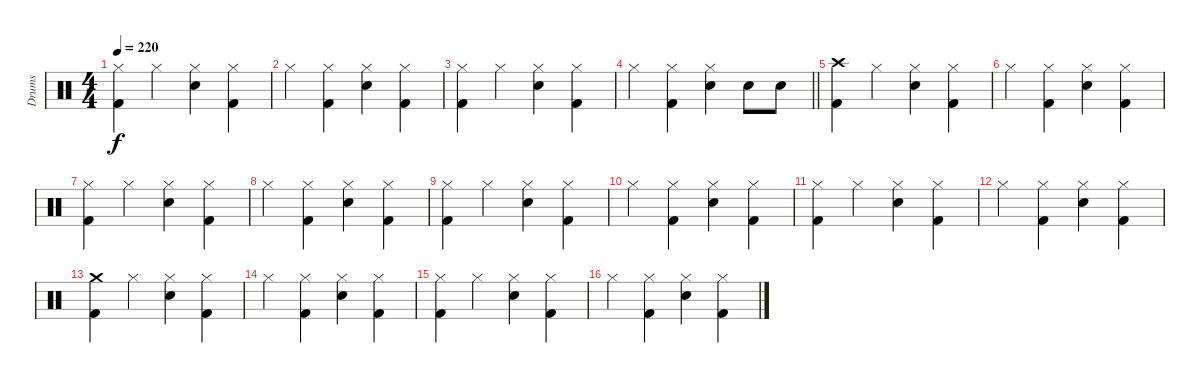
\track ("Drums" "Drums") {instrument percussion}
\staff {score}
\articulation defaults
\ts (4 4)
\tempo 220
\clef neutral
\ks c
("Hi-Hat (closed)" "Kick (hit) 2").4{dy f} "Hi-Hat (closed)".4 ("Hi-Hat (closed)" "Electric Snare (hit)").4 ("Hi-Hat (closed)" "Kick (hit) 2").4 |
"Hi-Hat (closed)".4 ("Hi-Hat (closed)" "Kick (hit) 2").4 ("Hi-Hat (closed)" "Electric Snare (hit)").4 ("Hi-Hat (closed)" "Kick (hit) 2").4 |
("Hi-Hat (closed)" "Kick (hit) 2").4 "Hi-Hat (closed)".4 ("Hi-Hat (closed)" "Electric Snare (hit)").4 ("Hi-Hat (closed)" "Kick (hit) 2").4 |
\barLineRight lightlight "Hi-Hat (closed)".4
("Hi-Hat (closed)" "Kick (hit) 2").4 ("Hi-Hat (closed)" "Electric Snare (hit)").4 "Electric Snare (hit)".8 "Electric Snare (hit)".8 |
("Crash high (hit)" "Kick (hit) 2").4 "Hi-Hat (closed)".4 ("Hi-Hat (closed)" "Electric Snare (hit)").4 ("Hi-Hat (closed)" "Kick (hit) 2").4 |
"Hi-Hat (closed)".4 ("Hi-Hat (closed)" "Kick (hit) 2").4 ("Hi-Hat (closed)" "Electric Snare (hit)").4 ("Hi-Hat (closed)" "Kick (hit) 2").4 |
("Hi-Hat (closed)" "Kick (hit) 2").4 "Hi-Hat (closed)".4 ("Hi-Hat (closed)" "Electric Snare (hit)").4 ("Hi-Hat (closed)" "Kick (hit) 2").4 |
"Hi-Hat (closed)".4 ("Hi-Hat (closed)" "Kick (hit) 2").4 ("Hi-Hat (closed)" "Electric Snare (hit)").4 ("Hi-Hat (closed)" "Kick (hit) 2").4 |
("Hi-Hat (closed)" "Kick (hit) 2").4 "Hi-Hat (closed)".4 ("Hi-Hat (closed)" "Electric Snare (hit)").4 ("Hi-Hat (closed)" "Kick (hit) 2").4 |
"Hi-Hat (closed)".4 ("Hi-Hat (closed)" "Kick (hit) 2").4 ("Hi-Hat (closed)" "Electric Snare (hit)").4 ("Hi-Hat (closed)" "Kick (hit) 2").4 |
("Hi-Hat (closed)" "Kick (hit) 2").4 "Hi-Hat (closed)".4 ("Hi-Hat (closed)" "Electric Snare (hit)").4 ("Hi-Hat (closed)" "Kick (hit) 2").4 |
"Hi-Hat (closed)".4 ("Hi-Hat (closed)" "Kick (hit) 2").4 ("Hi-Hat (closed)" "Electric Snare (hit)").4 ("Hi-Hat (closed)" "Kick (hit) 2").4 |
("Crash medium (hit)" "Kick (hit) 2").4 "Hi-Hat (closed)".4 ("Hi-Hat (closed)" "Electric Snare (hit)").4 ("Hi-Hat (closed)" "Kick (hit) 2").4 |
"Hi-Hat (closed)".4 ("Hi-Hat (closed)" "Kick (hit) 2").4 ("Hi-Hat (closed)" "Electric Snare (hit)").4 ("Hi-Hat (closed)" "Kick (hit) 2").4 |
("Hi-Hat (closed)" "Kick (hit) 2").4 "Hi-Hat (closed)".4 ("Hi-Hat (closed)" "Electric Snare (hit)").4 ("Hi-Hat (closed)" "Kick (hit) 2").4 |
"Hi-Hat (closed)".4 ("Hi-Hat (closed)" "Kick (hit) 2").4 ("Hi-Hat (closed)" "Electric Snare (hit)").4 ("Hi-Hat (closed)" "Kick (hit) 2").4
